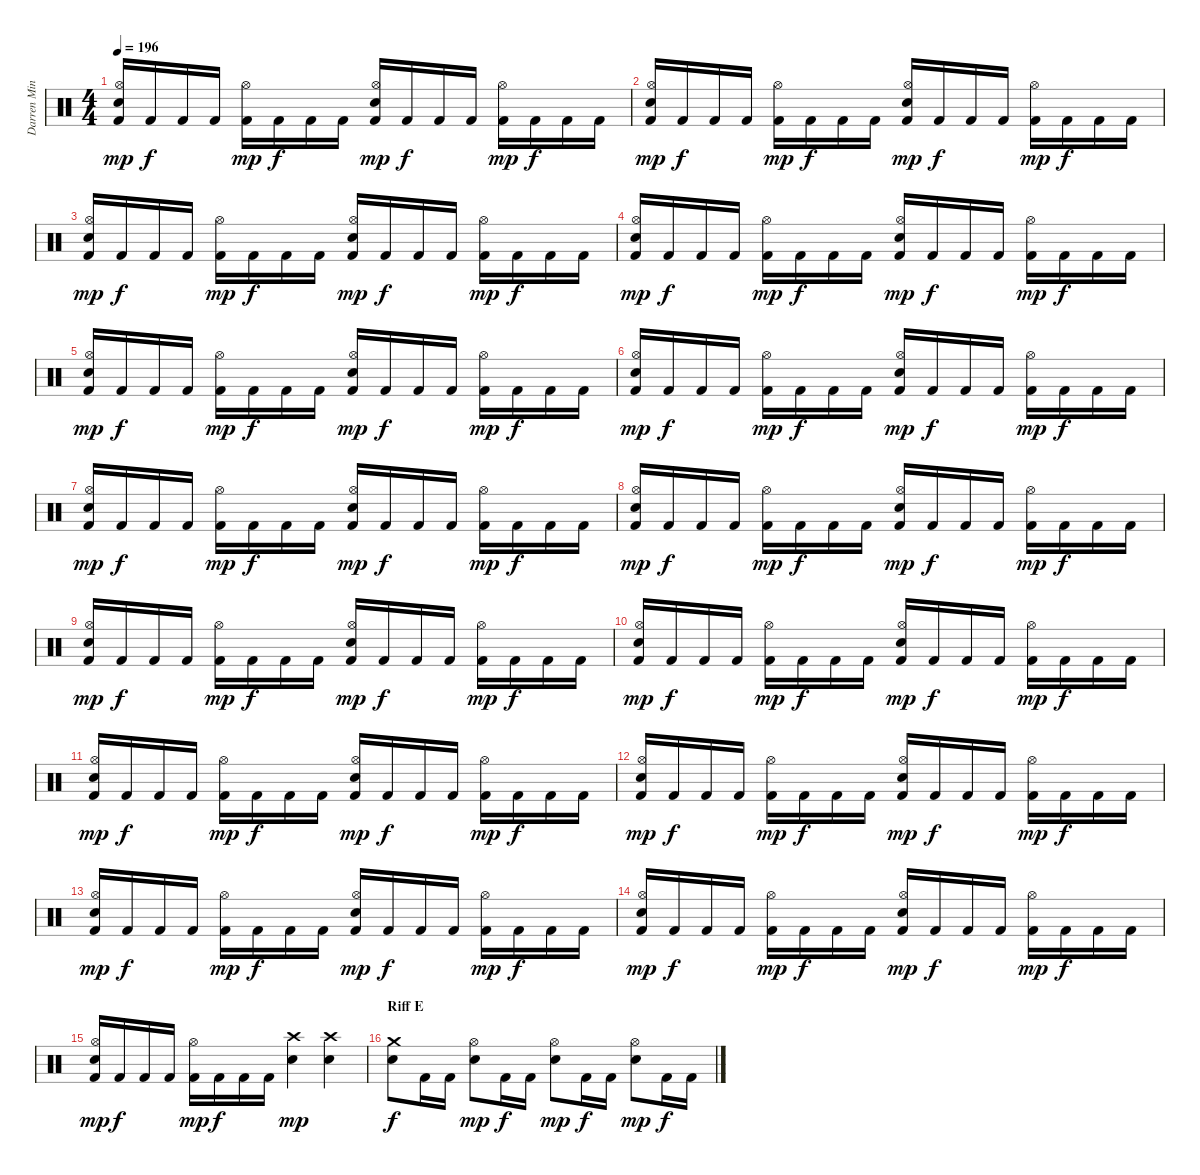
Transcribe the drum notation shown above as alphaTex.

\track ("Darren Minter" "Darren Min") {instrument percussion}
\staff {score}
\articulation defaults
\ts (4 4)
\tempo 196
\clef neutral
\ks c
("Kick (hit) 2" "Hi-Hat (open)" "Snare (hit) 2").16{dy mp} "Kick (hit) 2".16{dy f} "Kick (hit) 2".16 "Kick (hit) 2".16 ("Kick (hit) 2" "Hi-Hat (open)").16{dy mp} "Kick (hit) 2".16{dy f} "Kick (hit) 2".16 "Kick (hit) 2".16 ("Kick (hit) 2" "Hi-Hat (open)" "Snare (hit) 2").16{dy mp} "Kick (hit) 2".16{dy f} "Kick (hit) 2".16 "Kick (hit) 2".16 ("Kick (hit) 2" "Hi-Hat (open)").16{dy mp} "Kick (hit) 2".16{dy f} "Kick (hit) 2".16 "Kick (hit) 2".16 |
("Kick (hit) 2" "Hi-Hat (open)" "Snare (hit) 2").16{dy mp} "Kick (hit) 2".16{dy f} "Kick (hit) 2".16 "Kick (hit) 2".16 ("Kick (hit) 2" "Hi-Hat (open)").16{dy mp} "Kick (hit) 2".16{dy f} "Kick (hit) 2".16 "Kick (hit) 2".16 ("Kick (hit) 2" "Hi-Hat (open)" "Snare (hit) 2").16{dy mp} "Kick (hit) 2".16{dy f} "Kick (hit) 2".16 "Kick (hit) 2".16 ("Kick (hit) 2" "Hi-Hat (open)").16{dy mp} "Kick (hit) 2".16{dy f} "Kick (hit) 2".16 "Kick (hit) 2".16 |
("Kick (hit) 2" "Hi-Hat (open)" "Snare (hit) 2").16{dy mp} "Kick (hit) 2".16{dy f} "Kick (hit) 2".16 "Kick (hit) 2".16 ("Kick (hit) 2" "Hi-Hat (open)").16{dy mp} "Kick (hit) 2".16{dy f} "Kick (hit) 2".16 "Kick (hit) 2".16 ("Kick (hit) 2" "Hi-Hat (open)" "Snare (hit) 2").16{dy mp} "Kick (hit) 2".16{dy f} "Kick (hit) 2".16 "Kick (hit) 2".16 ("Kick (hit) 2" "Hi-Hat (open)").16{dy mp} "Kick (hit) 2".16{dy f} "Kick (hit) 2".16 "Kick (hit) 2".16 |
("Kick (hit) 2" "Hi-Hat (open)" "Snare (hit) 2").16{dy mp} "Kick (hit) 2".16{dy f} "Kick (hit) 2".16 "Kick (hit) 2".16 ("Kick (hit) 2" "Hi-Hat (open)").16{dy mp} "Kick (hit) 2".16{dy f} "Kick (hit) 2".16 "Kick (hit) 2".16 ("Kick (hit) 2" "Hi-Hat (open)" "Snare (hit) 2").16{dy mp} "Kick (hit) 2".16{dy f} "Kick (hit) 2".16 "Kick (hit) 2".16 ("Kick (hit) 2" "Hi-Hat (open)").16{dy mp} "Kick (hit) 2".16{dy f} "Kick (hit) 2".16 "Kick (hit) 2".16 |
("Kick (hit) 2" "Hi-Hat (open)" "Snare (hit) 2").16{dy mp} "Kick (hit) 2".16{dy f} "Kick (hit) 2".16 "Kick (hit) 2".16 ("Kick (hit) 2" "Hi-Hat (open)").16{dy mp} "Kick (hit) 2".16{dy f} "Kick (hit) 2".16 "Kick (hit) 2".16 ("Kick (hit) 2" "Hi-Hat (open)" "Snare (hit) 2").16{dy mp} "Kick (hit) 2".16{dy f} "Kick (hit) 2".16 "Kick (hit) 2".16 ("Kick (hit) 2" "Hi-Hat (open)").16{dy mp} "Kick (hit) 2".16{dy f} "Kick (hit) 2".16 "Kick (hit) 2".16 |
("Kick (hit) 2" "Hi-Hat (open)" "Snare (hit) 2").16{dy mp} "Kick (hit) 2".16{dy f} "Kick (hit) 2".16 "Kick (hit) 2".16 ("Kick (hit) 2" "Hi-Hat (open)").16{dy mp} "Kick (hit) 2".16{dy f} "Kick (hit) 2".16 "Kick (hit) 2".16 ("Kick (hit) 2" "Hi-Hat (open)" "Snare (hit) 2").16{dy mp} "Kick (hit) 2".16{dy f} "Kick (hit) 2".16 "Kick (hit) 2".16 ("Kick (hit) 2" "Hi-Hat (open)").16{dy mp} "Kick (hit) 2".16{dy f} "Kick (hit) 2".16 "Kick (hit) 2".16 |
("Kick (hit) 2" "Hi-Hat (open)" "Snare (hit) 2").16{dy mp} "Kick (hit) 2".16{dy f} "Kick (hit) 2".16 "Kick (hit) 2".16 ("Kick (hit) 2" "Hi-Hat (open)").16{dy mp} "Kick (hit) 2".16{dy f} "Kick (hit) 2".16 "Kick (hit) 2".16 ("Kick (hit) 2" "Hi-Hat (open)" "Snare (hit) 2").16{dy mp} "Kick (hit) 2".16{dy f} "Kick (hit) 2".16 "Kick (hit) 2".16 ("Kick (hit) 2" "Hi-Hat (open)").16{dy mp} "Kick (hit) 2".16{dy f} "Kick (hit) 2".16 "Kick (hit) 2".16 |
("Kick (hit) 2" "Hi-Hat (open)" "Snare (hit) 2").16{dy mp} "Kick (hit) 2".16{dy f} "Kick (hit) 2".16 "Kick (hit) 2".16 ("Kick (hit) 2" "Hi-Hat (open)").16{dy mp} "Kick (hit) 2".16{dy f} "Kick (hit) 2".16 "Kick (hit) 2".16 ("Kick (hit) 2" "Hi-Hat (open)" "Snare (hit) 2").16{dy mp} "Kick (hit) 2".16{dy f} "Kick (hit) 2".16 "Kick (hit) 2".16 ("Kick (hit) 2" "Hi-Hat (open)").16{dy mp} "Kick (hit) 2".16{dy f} "Kick (hit) 2".16 "Kick (hit) 2".16 |
("Kick (hit) 2" "Hi-Hat (open)" "Snare (hit) 2").16{dy mp} "Kick (hit) 2".16{dy f} "Kick (hit) 2".16 "Kick (hit) 2".16 ("Kick (hit) 2" "Hi-Hat (open)").16{dy mp} "Kick (hit) 2".16{dy f} "Kick (hit) 2".16 "Kick (hit) 2".16 ("Kick (hit) 2" "Hi-Hat (open)" "Snare (hit) 2").16{dy mp} "Kick (hit) 2".16{dy f} "Kick (hit) 2".16 "Kick (hit) 2".16 ("Kick (hit) 2" "Hi-Hat (open)").16{dy mp} "Kick (hit) 2".16{dy f} "Kick (hit) 2".16 "Kick (hit) 2".16 |
("Kick (hit) 2" "Hi-Hat (open)" "Snare (hit) 2").16{dy mp} "Kick (hit) 2".16{dy f} "Kick (hit) 2".16 "Kick (hit) 2".16 ("Kick (hit) 2" "Hi-Hat (open)").16{dy mp} "Kick (hit) 2".16{dy f} "Kick (hit) 2".16 "Kick (hit) 2".16 ("Kick (hit) 2" "Hi-Hat (open)" "Snare (hit) 2").16{dy mp} "Kick (hit) 2".16{dy f} "Kick (hit) 2".16 "Kick (hit) 2".16 ("Kick (hit) 2" "Hi-Hat (open)").16{dy mp} "Kick (hit) 2".16{dy f} "Kick (hit) 2".16 "Kick (hit) 2".16 |
("Kick (hit) 2" "Hi-Hat (open)" "Snare (hit) 2").16{dy mp} "Kick (hit) 2".16{dy f} "Kick (hit) 2".16 "Kick (hit) 2".16 ("Kick (hit) 2" "Hi-Hat (open)").16{dy mp} "Kick (hit) 2".16{dy f} "Kick (hit) 2".16 "Kick (hit) 2".16 ("Kick (hit) 2" "Hi-Hat (open)" "Snare (hit) 2").16{dy mp} "Kick (hit) 2".16{dy f} "Kick (hit) 2".16 "Kick (hit) 2".16 ("Kick (hit) 2" "Hi-Hat (open)").16{dy mp} "Kick (hit) 2".16{dy f} "Kick (hit) 2".16 "Kick (hit) 2".16 |
("Kick (hit) 2" "Hi-Hat (open)" "Snare (hit) 2").16{dy mp} "Kick (hit) 2".16{dy f} "Kick (hit) 2".16 "Kick (hit) 2".16 ("Kick (hit) 2" "Hi-Hat (open)").16{dy mp} "Kick (hit) 2".16{dy f} "Kick (hit) 2".16 "Kick (hit) 2".16 ("Kick (hit) 2" "Hi-Hat (open)" "Snare (hit) 2").16{dy mp} "Kick (hit) 2".16{dy f} "Kick (hit) 2".16 "Kick (hit) 2".16 ("Kick (hit) 2" "Hi-Hat (open)").16{dy mp} "Kick (hit) 2".16{dy f} "Kick (hit) 2".16 "Kick (hit) 2".16 |
("Kick (hit) 2" "Hi-Hat (open)" "Snare (hit) 2").16{dy mp} "Kick (hit) 2".16{dy f} "Kick (hit) 2".16 "Kick (hit) 2".16 ("Kick (hit) 2" "Hi-Hat (open)").16{dy mp} "Kick (hit) 2".16{dy f} "Kick (hit) 2".16 "Kick (hit) 2".16 ("Kick (hit) 2" "Hi-Hat (open)" "Snare (hit) 2").16{dy mp} "Kick (hit) 2".16{dy f} "Kick (hit) 2".16 "Kick (hit) 2".16 ("Kick (hit) 2" "Hi-Hat (open)").16{dy mp} "Kick (hit) 2".16{dy f} "Kick (hit) 2".16 "Kick (hit) 2".16 |
("Kick (hit) 2" "Hi-Hat (open)" "Snare (hit) 2").16{dy mp} "Kick (hit) 2".16{dy f} "Kick (hit) 2".16 "Kick (hit) 2".16 ("Kick (hit) 2" "Hi-Hat (open)").16{dy mp} "Kick (hit) 2".16{dy f} "Kick (hit) 2".16 "Kick (hit) 2".16 ("Kick (hit) 2" "Hi-Hat (open)" "Snare (hit) 2").16{dy mp} "Kick (hit) 2".16{dy f} "Kick (hit) 2".16 "Kick (hit) 2".16 ("Kick (hit) 2" "Hi-Hat (open)").16{dy mp} "Kick (hit) 2".16{dy f} "Kick (hit) 2".16 "Kick (hit) 2".16 |
("Kick (hit) 2" "Hi-Hat (open)" "Snare (hit) 2").16{dy mp} "Kick (hit) 2".16{dy f} "Kick (hit) 2".16 "Kick (hit) 2".16 ("Kick (hit) 2" "Hi-Hat (open)").16{dy mp} "Kick (hit) 2".16{dy f} "Kick (hit) 2".16 "Kick (hit) 2".16 ("Crash high (hit)" "Snare (hit) 2").4{dy mp} ("Crash high (hit)" "Snare (hit) 2").4 |
\section ("" "Riff E")
("Crash medium (hit)" "Snare (hit) 2").8{dy f} "Kick (hit) 2".16 "Kick (hit) 2".16 ("Hi-Hat (open)" "Snare (hit) 2").8{dy mp} "Kick (hit) 2".16{dy f} "Kick (hit) 2".16 ("Hi-Hat (open)" "Snare (hit) 2").8{dy mp} "Kick (hit) 2".16{dy f} "Kick (hit) 2".16 ("Hi-Hat (open)" "Snare (hit) 2").8{dy mp} "Kick (hit) 2".16{dy f} "Kick (hit) 2".16
